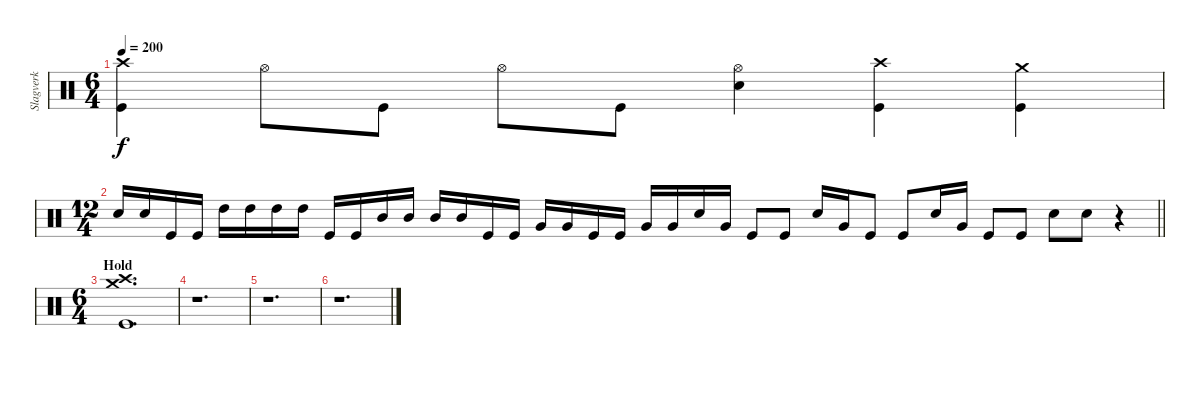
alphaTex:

\track ("Slagverk" "Slagverk") {instrument percussion}
\staff {score}
\articulation defaults
\ts (6 4)
\tempo 200
\clef neutral
\ks c
("Crash high (hit)" "Kick (hit)").4{dy f} "Hi-Hat (open)".8 "Kick (hit)".8 "Hi-Hat (open)".8 "Kick (hit)".8 ("Hi-Hat (open)" "Electric Snare (hit)").4 ("Crash high (hit)" "Kick (hit)").4 ("Crash medium (hit)" "Kick (hit)").4 |
\ts (12 4)
\barLineRight lightlight "Electric Snare (hit)".16 "Electric Snare (hit)".16 "Kick (hit)".16 "Kick (hit)".16 "High Tom (hit)".16 "High Tom (hit)".16 "High Tom (hit)".16 "High Tom (hit)".16 "Kick (hit)".16 "Kick (hit)".16 "Mid Tom (hit)".16 "Mid Tom (hit)".16 "Mid Tom (hit)".16 "Mid Tom (hit)".16 "Kick (hit)".16 "Kick (hit)".16 "Very Low Tom (hit)".16 "Very Low Tom (hit)".16 "Kick (hit)".16 "Kick (hit)".16 "Very Low Tom (hit)".16 "Very Low Tom (hit)".16 "Electric Snare (hit)".16 "Very Low Tom (hit)".16 "Kick (hit)".8 "Kick (hit)".8 "Electric Snare (hit)".16 "Very Low Tom (hit)".16 "Kick (hit)".8 "Kick (hit)".8 "Electric Snare (hit)".16 "Very Low Tom (hit)".16 "Kick (hit)".8 "Kick (hit)".8 "Electric Snare (hit)".8 "Electric Snare (hit)".8
r.4 |
\ts (6 4)
\section ("" "Hold")
("Crash high (hit)" "Kick (hit)" "Crash medium (hit)").1{d} |
r.1{d} |
r.1{d} |
r.1{d}
